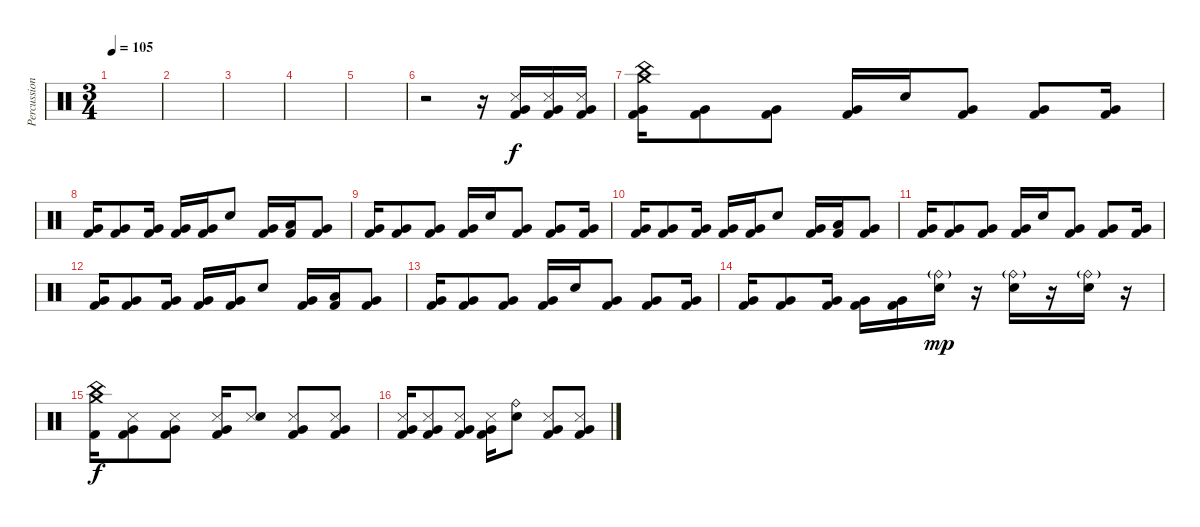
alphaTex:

\track ("Percussions" "Percussion") {instrument percussion}
\staff {score}
\articulation defaults
\ts (3 4)
\tempo 105
\clef neutral
\ks c
|
|
|
|
|
r.2 r.16 ("Metronome (hit)" "Very Low Tom (hit)" "Kick (hit) 2").16{dy f} ("Metronome (hit)" "Very Low Tom (hit)" "Kick (hit) 2").16 ("Metronome (hit)" "Very Low Tom (hit)" "Kick (hit) 2").16 |
\section ("" "")
("Crash medium (hit)" "Very Low Tom (hit)" "Kick (hit) 2" "China (hit)").16 ("Very Low Tom (hit)" "Kick (hit) 2").8 ("Very Low Tom (hit)" "Kick (hit) 2").8 ("Very Low Tom (hit)" "Kick (hit) 2").16 "Snare (hit) 2".16 ("Very Low Tom (hit)" "Kick (hit) 2").8 ("Very Low Tom (hit)" "Kick (hit) 2").8 ("Very Low Tom (hit)" "Kick (hit) 2").16 |
("Very Low Tom (hit)" "Kick (hit) 2").16 ("Very Low Tom (hit)" "Kick (hit) 2").8 ("Very Low Tom (hit)" "Kick (hit) 2").16 ("Very Low Tom (hit)" "Kick (hit) 2").16 ("Very Low Tom (hit)" "Kick (hit) 2").16 "Snare (hit) 2".8 ("Very Low Tom (hit)" "Kick (hit) 2").16 ("Low Tom (hit)" "Kick (hit) 2").16 ("Very Low Tom (hit)" "Kick (hit) 2").8 |
("Very Low Tom (hit)" "Kick (hit) 2").16 ("Very Low Tom (hit)" "Kick (hit) 2").8 ("Very Low Tom (hit)" "Kick (hit) 2").8 ("Very Low Tom (hit)" "Kick (hit) 2").16 "Snare (hit) 2".16 ("Very Low Tom (hit)" "Kick (hit) 2").8 ("Very Low Tom (hit)" "Kick (hit) 2").8 ("Very Low Tom (hit)" "Kick (hit) 2").16 |
("Very Low Tom (hit)" "Kick (hit) 2").16 ("Very Low Tom (hit)" "Kick (hit) 2").8 ("Very Low Tom (hit)" "Kick (hit) 2").16 ("Very Low Tom (hit)" "Kick (hit) 2").16 ("Very Low Tom (hit)" "Kick (hit) 2").16 "Snare (hit) 2".8 ("Very Low Tom (hit)" "Kick (hit) 2").16 ("Low Tom (hit)" "Kick (hit) 2").16 ("Very Low Tom (hit)" "Kick (hit) 2").8 |
("Very Low Tom (hit)" "Kick (hit) 2").16 ("Very Low Tom (hit)" "Kick (hit) 2").8 ("Very Low Tom (hit)" "Kick (hit) 2").8 ("Very Low Tom (hit)" "Kick (hit) 2").16 "Snare (hit) 2".16 ("Very Low Tom (hit)" "Kick (hit) 2").8 ("Very Low Tom (hit)" "Kick (hit) 2").8 ("Very Low Tom (hit)" "Kick (hit) 2").16 |
("Very Low Tom (hit)" "Kick (hit) 2").16 ("Very Low Tom (hit)" "Kick (hit) 2").8 ("Very Low Tom (hit)" "Kick (hit) 2").16 ("Very Low Tom (hit)" "Kick (hit) 2").16 ("Very Low Tom (hit)" "Kick (hit) 2").16 "Snare (hit) 2".8 ("Very Low Tom (hit)" "Kick (hit) 2").16 ("Low Tom (hit)" "Kick (hit) 2").16 ("Very Low Tom (hit)" "Kick (hit) 2").8 |
("Very Low Tom (hit)" "Kick (hit) 2").16 ("Very Low Tom (hit)" "Kick (hit) 2").8 ("Very Low Tom (hit)" "Kick (hit) 2").8 ("Very Low Tom (hit)" "Kick (hit) 2").16 "Snare (hit) 2".16 ("Very Low Tom (hit)" "Kick (hit) 2").8 ("Very Low Tom (hit)" "Kick (hit) 2").8 ("Very Low Tom (hit)" "Kick (hit) 2").16 |
("Very Low Tom (hit)" "Kick (hit) 2").16 ("Very Low Tom (hit)" "Kick (hit) 2").8 ("Very Low Tom (hit)" "Kick (hit) 2").16 ("Very Low Tom (hit)" "Kick (hit) 2").16 ("Very Low Tom (hit)" "Kick (hit) 2").16 ("Ride (bell)"{g} "Snare (hit) 2").16{dy mp} r.16 ("Ride (bell)"{g} "Snare (hit) 2").16 r.16 ("Ride (bell)"{g} "Snare (hit) 2").16 r.16 |
\section ("" "")
("Crash medium (hit)" "Kick (hit) 2" "China (hit)").16{dy f} ("Metronome (hit)" "Very Low Tom (hit)" "Kick (hit) 2").8 ("Metronome (hit)" "Very Low Tom (hit)" "Kick (hit) 2").8 ("Metronome (hit)" "Very Low Tom (hit)" "Kick (hit) 2").16 ("Metronome (hit)" "Snare (hit) 2").8 ("Metronome (hit)" "Very Low Tom (hit)" "Kick (hit) 2").8 ("Metronome (hit)" "Very Low Tom (hit)" "Kick (hit) 2").8 |
("Metronome (hit)" "Very Low Tom (hit)" "Kick (hit) 2").16 ("Metronome (hit)" "Very Low Tom (hit)" "Kick (hit) 2").8 ("Metronome (hit)" "Very Low Tom (hit)" "Kick (hit) 2").8 ("Metronome (hit)" "Very Low Tom (hit)" "Kick (hit) 2").16 ("Ride (bell)" "Snare (hit) 2").8 ("Metronome (hit)" "Very Low Tom (hit)" "Kick (hit) 2").8 ("Metronome (hit)" "Very Low Tom (hit)" "Kick (hit) 2").8
